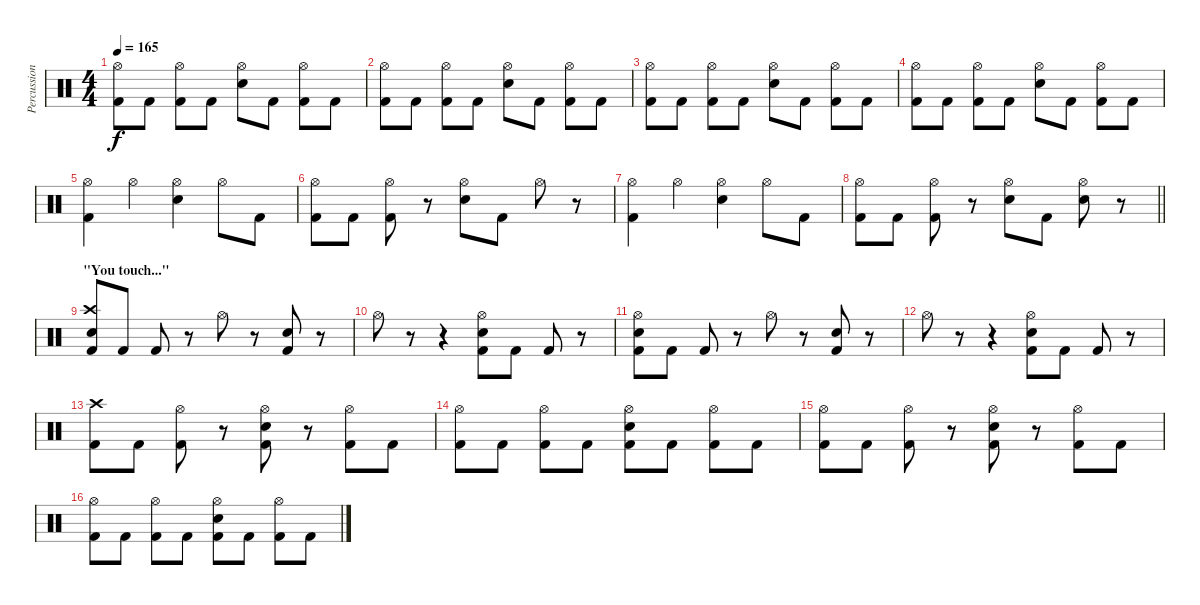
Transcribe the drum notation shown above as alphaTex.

\track ("Percussion" "Percussion") {instrument percussion}
\staff {score}
\articulation defaults
\ts (4 4)
\tempo 165
\clef neutral
\ks c
("Hi-Hat (open)" "Kick (hit) 2").8{dy f} "Kick (hit) 2".8 ("Hi-Hat (open)" "Kick (hit) 2").8 "Kick (hit) 2".8 ("Hi-Hat (open)" "Electric Snare (hit)").8 "Kick (hit) 2".8 ("Hi-Hat (open)" "Kick (hit) 2").8 "Kick (hit) 2".8 |
("Hi-Hat (open)" "Kick (hit) 2").8 "Kick (hit) 2".8 ("Hi-Hat (open)" "Kick (hit) 2").8 "Kick (hit) 2".8 ("Hi-Hat (open)" "Electric Snare (hit)").8 "Kick (hit) 2".8 ("Hi-Hat (open)" "Kick (hit) 2").8 "Kick (hit) 2".8 |
("Hi-Hat (open)" "Kick (hit) 2").8 "Kick (hit) 2".8 ("Hi-Hat (open)" "Kick (hit) 2").8 "Kick (hit) 2".8 ("Hi-Hat (open)" "Electric Snare (hit)").8 "Kick (hit) 2".8 ("Hi-Hat (open)" "Kick (hit) 2").8 "Kick (hit) 2".8 |
("Hi-Hat (open)" "Kick (hit) 2").8 "Kick (hit) 2".8 ("Hi-Hat (open)" "Kick (hit) 2").8 "Kick (hit) 2".8 ("Hi-Hat (open)" "Electric Snare (hit)").8 "Kick (hit) 2".8 ("Hi-Hat (open)" "Kick (hit) 2").8 "Kick (hit) 2".8 |
("Hi-Hat (open)" "Kick (hit) 2").4 "Hi-Hat (open)".4 ("Hi-Hat (open)" "Electric Snare (hit)").4 "Hi-Hat (open)".8 "Kick (hit) 2".8 |
("Hi-Hat (open)" "Kick (hit) 2").8 "Kick (hit) 2".8 ("Hi-Hat (open)" "Kick (hit) 2").8 r.8 ("Hi-Hat (open)" "Electric Snare (hit)").8 "Kick (hit) 2".8 "Hi-Hat (open)".8 r.8 |
("Hi-Hat (open)" "Kick (hit) 2").4 "Hi-Hat (open)".4 ("Hi-Hat (open)" "Electric Snare (hit)").4 "Hi-Hat (open)".8 "Kick (hit) 2".8 |
\barLineRight lightlight
("Hi-Hat (open)" "Kick (hit) 2").8 "Kick (hit) 2".8 ("Hi-Hat (open)" "Kick (hit) 2").8 r.8 ("Hi-Hat (open)" "Electric Snare (hit)").8 "Kick (hit) 2".8 ("Hi-Hat (open)" "Electric Snare (hit)").8 r.8 |
\section ("" "\"You touch...\"")
("Crash high (hit)" "Snare (hit) 2" "Kick (hit) 2").8 "Kick (hit) 2".8 "Kick (hit) 2".8 r.8 "Hi-Hat (open)".8 r.8 ("Snare (hit) 2" "Kick (hit) 2").8 r.8 |
"Hi-Hat (open)".8 r.8 r.4 ("Hi-Hat (open)" "Electric Snare (hit)" "Kick (hit) 2").8 "Kick (hit) 2".8 "Kick (hit) 2".8 r.8 |
("Hi-Hat (open)" "Snare (hit) 2" "Kick (hit) 2").8 "Kick (hit) 2".8 "Kick (hit) 2".8 r.8 "Hi-Hat (open)".8 r.8 ("Snare (hit) 2" "Kick (hit) 2").8 r.8 |
"Hi-Hat (open)".8 r.8 r.4 ("Hi-Hat (open)" "Electric Snare (hit)" "Kick (hit) 2").8 "Kick (hit) 2".8 "Kick (hit) 2".8 r.8 |
("Crash high (hit)" "Kick (hit) 2").8 "Kick (hit) 2".8 ("Hi-Hat (open)" "Kick (hit) 2").8 r.8 ("Hi-Hat (open)" "Electric Snare (hit)" "Kick (hit) 2").8 r.8 ("Hi-Hat (open)" "Kick (hit) 2").8 "Kick (hit) 2".8 |
("Hi-Hat (open)" "Kick (hit) 2").8 "Kick (hit) 2".8 ("Hi-Hat (open)" "Kick (hit) 2").8 "Kick (hit) 2".8 ("Hi-Hat (open)" "Electric Snare (hit)" "Kick (hit) 2").8 "Kick (hit) 2".8 ("Hi-Hat (open)" "Kick (hit) 2").8 "Kick (hit) 2".8 |
("Hi-Hat (open)" "Kick (hit) 2").8 "Kick (hit) 2".8 ("Hi-Hat (open)" "Kick (hit) 2").8 r.8 ("Hi-Hat (open)" "Electric Snare (hit)" "Kick (hit) 2").8 r.8 ("Hi-Hat (open)" "Kick (hit) 2").8 "Kick (hit) 2".8 |
("Hi-Hat (open)" "Kick (hit) 2").8 "Kick (hit) 2".8 ("Hi-Hat (open)" "Kick (hit) 2").8 "Kick (hit) 2".8 ("Hi-Hat (open)" "Electric Snare (hit)" "Kick (hit) 2").8 "Kick (hit) 2".8 ("Hi-Hat (open)" "Kick (hit) 2").8 "Kick (hit) 2".8
